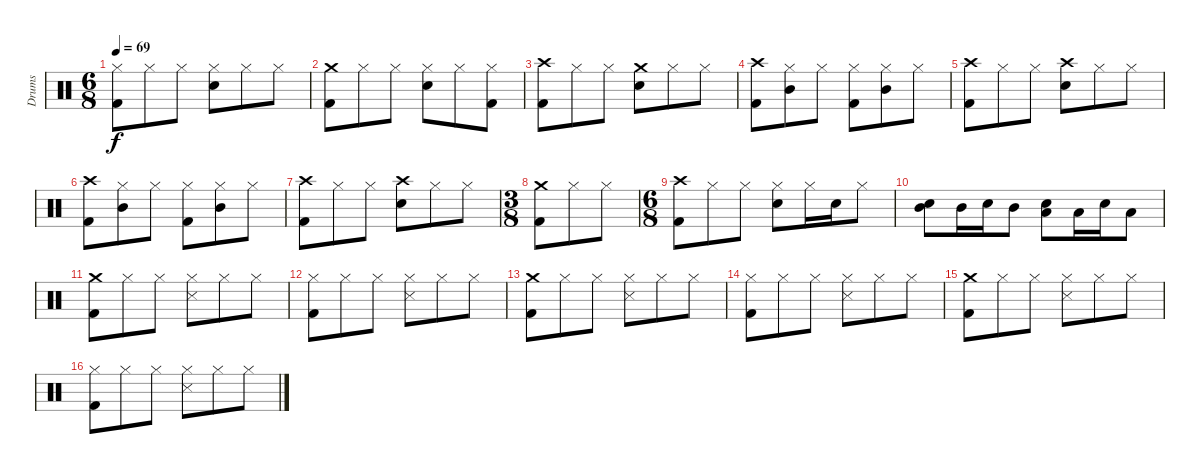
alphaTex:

\track ("Drums" "Drums") {instrument percussion}
\staff {score}
\articulation defaults
\ts (6 8)
\tempo 69
\clef neutral
\ks c
("Hi-Hat (closed)" "Kick (hit) 2").8{dy f} "Hi-Hat (closed)".8 "Hi-Hat (closed)".8 ("Hi-Hat (closed)" "Snare (hit) 2").8 "Hi-Hat (closed)".8 "Hi-Hat (closed)".8 |
("Crash medium (hit)" "Kick (hit) 2").8 "Hi-Hat (closed)".8 "Hi-Hat (closed)".8 ("Hi-Hat (closed)" "Snare (hit) 2").8 "Hi-Hat (closed)".8 ("Hi-Hat (closed)" "Kick (hit) 2").8 |
("Crash high (hit)" "Kick (hit) 2").8 "Hi-Hat (closed)".8 "Hi-Hat (closed)".8 ("Crash medium (hit)" "Snare (hit) 2").8 "Hi-Hat (closed)".8 "Hi-Hat (closed)".8 |
("Crash high (hit)" "Kick (hit) 2").8 ("Hi-Hat (closed)" "Mid Tom (hit)").8 "Hi-Hat (closed)".8 ("Hi-Hat (closed)" "Kick (hit) 2").8 ("Hi-Hat (closed)" "Mid Tom (hit)").8 "Hi-Hat (closed)".8 |
("Crash high (hit)" "Kick (hit) 2").8 "Hi-Hat (closed)".8 "Hi-Hat (closed)".8 ("Crash high (hit)" "Snare (hit) 2").8 "Hi-Hat (closed)".8 "Hi-Hat (closed)".8 |
("Crash high (hit)" "Kick (hit) 2").8 ("Hi-Hat (closed)" "Mid Tom (hit)").8 "Hi-Hat (closed)".8 ("Hi-Hat (closed)" "Kick (hit) 2").8 ("Hi-Hat (closed)" "Mid Tom (hit)").8 "Hi-Hat (closed)".8 |
("Crash high (hit)" "Kick (hit) 2").8 "Hi-Hat (closed)".8 "Hi-Hat (closed)".8 ("Crash high (hit)" "Snare (hit) 2").8 "Hi-Hat (closed)".8 "Hi-Hat (closed)".8 |
\ts (3 8)
("Crash medium (hit)" "Kick (hit) 2").8 "Hi-Hat (closed)".8 "Hi-Hat (closed)".8 |
\ts (6 8)
("Crash high (hit)" "Kick (hit) 2").8 "Hi-Hat (closed)".8 "Hi-Hat (closed)".8 ("Hi-Hat (closed)" "Snare (hit) 2").8 "Hi-Hat (closed)".16 "Snare (hit) 2".16 "Hi-Hat (closed)".8 |
("Mid Tom (hit)" "Snare (hit) 2").8 "Mid Tom (hit)".16 "Snare (hit) 2".16 "Mid Tom (hit)".8 ("Snare (hit) 2" "Low Tom (hit)").8 "Low Tom (hit)".16 "Snare (hit) 2".16 "Low Tom (hit)".8 |
("Crash medium (hit)" "Kick (hit) 2").8 "Hi-Hat (closed)".8 "Hi-Hat (closed)".8 ("Hi-Hat (closed)" "Snare (side stick) 3").8 "Hi-Hat (closed)".8 "Hi-Hat (closed)".8 |
("Hi-Hat (closed)" "Kick (hit) 2").8 "Hi-Hat (closed)".8 "Hi-Hat (closed)".8 ("Hi-Hat (closed)" "Snare (side stick) 3").8 "Hi-Hat (closed)".8 "Hi-Hat (closed)".8 |
("Crash medium (hit)" "Kick (hit) 2").8 "Hi-Hat (closed)".8 "Hi-Hat (closed)".8 ("Hi-Hat (closed)" "Snare (side stick) 3").8 "Hi-Hat (closed)".8 "Hi-Hat (closed)".8 |
("Hi-Hat (closed)" "Kick (hit) 2").8 "Hi-Hat (closed)".8 "Hi-Hat (closed)".8 ("Hi-Hat (closed)" "Snare (side stick) 3").8 "Hi-Hat (closed)".8 "Hi-Hat (closed)".8 |
("Crash medium (hit)" "Kick (hit) 2").8 "Hi-Hat (closed)".8 "Hi-Hat (closed)".8 ("Hi-Hat (closed)" "Snare (side stick) 3").8 "Hi-Hat (closed)".8 "Hi-Hat (closed)".8 |
("Hi-Hat (closed)" "Kick (hit) 2").8 "Hi-Hat (closed)".8 "Hi-Hat (closed)".8 ("Hi-Hat (closed)" "Snare (side stick) 3").8 "Hi-Hat (closed)".8 "Hi-Hat (closed)".8
